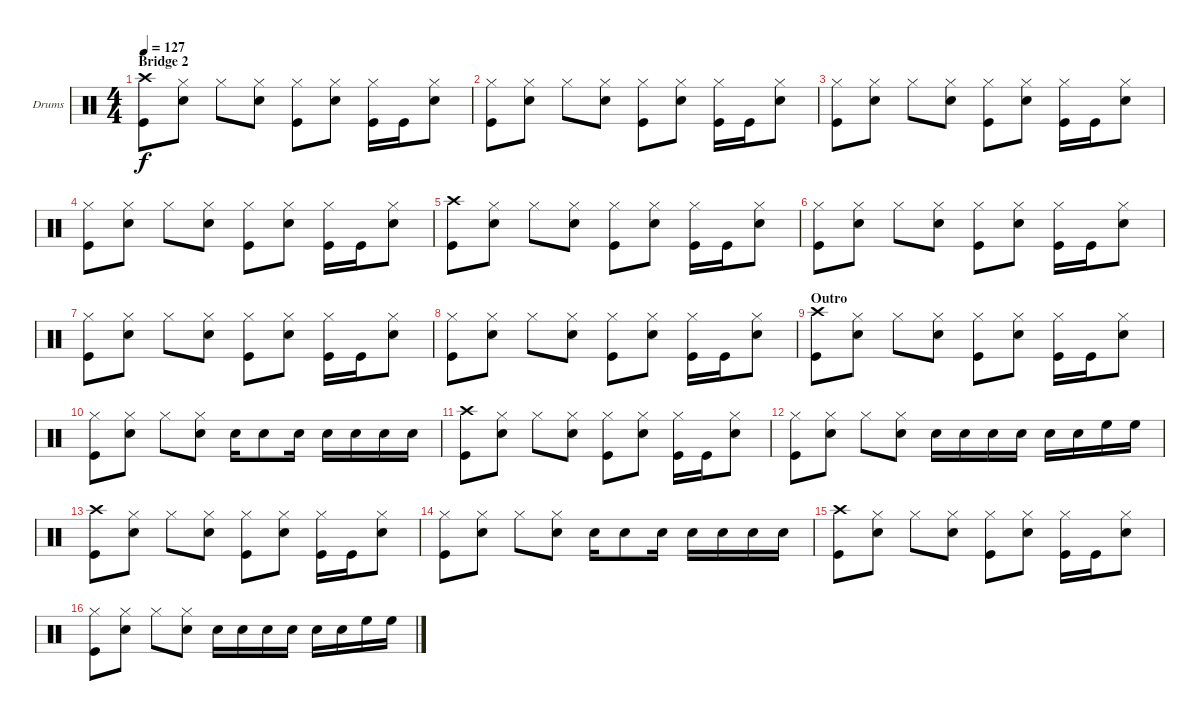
\bracketExtendMode nobrackets
\firstSystemTrackNameOrientation horizontal
\otherSystemsTrackNameOrientation horizontal
\track ("Matt Cameron" "Drums") {instrument percussion}
\staff {score}
\articulation defaults
\ts (4 4)
\section ("" "Bridge 2")
\tempo 127
\clef neutral
\scale
0.37037
\ks c
("Kick (hit)" "Crash high (hit)").8{dy f} ("Snare (hit) 2" "Hi-Hat (closed)").8 "Hi-Hat (closed)".8 ("Snare (hit) 2" "Hi-Hat (closed)").8 ("Kick (hit)" "Hi-Hat (closed)").8 ("Snare (hit) 2" "Hi-Hat (closed)").8 ("Kick (hit)" "Hi-Hat (closed)").16 "Kick (hit)".16 ("Snare (hit) 2" "Hi-Hat (closed)").8 |
\scale
0.259259 ("Kick (hit)" "Hi-Hat (closed)").8 ("Snare (hit) 2" "Hi-Hat (closed)").8 "Hi-Hat (closed)".8 ("Snare (hit) 2" "Hi-Hat (closed)").8 ("Kick (hit)" "Hi-Hat (closed)").8 ("Snare (hit) 2" "Hi-Hat (closed)").8 ("Kick (hit)" "Hi-Hat (closed)").16 "Kick (hit)".16 ("Snare (hit) 2" "Hi-Hat (closed)").8 |
\scale
0.333333 ("Kick (hit)" "Hi-Hat (closed)").8 ("Snare (hit) 2" "Hi-Hat (closed)").8 "Hi-Hat (closed)".8 ("Snare (hit) 2" "Hi-Hat (closed)").8 ("Kick (hit)" "Hi-Hat (closed)").8 ("Snare (hit) 2" "Hi-Hat (closed)").8 ("Kick (hit)" "Hi-Hat (closed)").16 "Kick (hit)".16 ("Snare (hit) 2" "Hi-Hat (closed)").8 |
\scale
0.333333 ("Kick (hit)" "Hi-Hat (closed)").8 ("Snare (hit) 2" "Hi-Hat (closed)").8 "Hi-Hat (closed)".8 ("Snare (hit) 2" "Hi-Hat (closed)").8 ("Kick (hit)" "Hi-Hat (closed)").8 ("Snare (hit) 2" "Hi-Hat (closed)").8 ("Kick (hit)" "Hi-Hat (closed)").16 "Kick (hit)".16 ("Snare (hit) 2" "Hi-Hat (closed)").8 |
\scale
0.333333 ("Kick (hit)" "Crash high (hit)").8 ("Snare (hit) 2" "Hi-Hat (closed)").8 "Hi-Hat (closed)".8 ("Snare (hit) 2" "Hi-Hat (closed)").8 ("Kick (hit)" "Hi-Hat (closed)").8 ("Snare (hit) 2" "Hi-Hat (closed)").8 ("Kick (hit)" "Hi-Hat (closed)").16 "Kick (hit)".16 ("Snare (hit) 2" "Hi-Hat (closed)").8 |
\scale
0.333333 ("Kick (hit)" "Hi-Hat (closed)").8 ("Snare (hit) 2" "Hi-Hat (closed)").8 "Hi-Hat (closed)".8 ("Snare (hit) 2" "Hi-Hat (closed)").8 ("Kick (hit)" "Hi-Hat (closed)").8 ("Snare (hit) 2" "Hi-Hat (closed)").8 ("Kick (hit)" "Hi-Hat (closed)").16 "Kick (hit)".16 ("Snare (hit) 2" "Hi-Hat (closed)").8 |
\scale
0.333333 ("Kick (hit)" "Hi-Hat (closed)").8 ("Snare (hit) 2" "Hi-Hat (closed)").8 "Hi-Hat (closed)".8 ("Snare (hit) 2" "Hi-Hat (closed)").8 ("Kick (hit)" "Hi-Hat (closed)").8 ("Snare (hit) 2" "Hi-Hat (closed)").8 ("Kick (hit)" "Hi-Hat (closed)").16 "Kick (hit)".16 ("Snare (hit) 2" "Hi-Hat (closed)").8 |
\scale
0.333333 ("Kick (hit)" "Hi-Hat (closed)").8 ("Snare (hit) 2" "Hi-Hat (closed)").8 "Hi-Hat (closed)".8 ("Snare (hit) 2" "Hi-Hat (closed)").8 ("Kick (hit)" "Hi-Hat (closed)").8 ("Snare (hit) 2" "Hi-Hat (closed)").8 ("Kick (hit)" "Hi-Hat (closed)").16 "Kick (hit)".16 ("Snare (hit) 2" "Hi-Hat (closed)").8 |
\section ("" "Outro")
\scale
0.333333 ("Kick (hit)" "Crash high (hit)").8 ("Snare (hit) 2" "Hi-Hat (closed)").8 "Hi-Hat (closed)".8 ("Snare (hit) 2" "Hi-Hat (closed)").8 ("Kick (hit)" "Hi-Hat (closed)").8 ("Snare (hit) 2" "Hi-Hat (closed)").8 ("Kick (hit)" "Hi-Hat (closed)").16 "Kick (hit)".16 ("Snare (hit) 2" "Hi-Hat (closed)").8 |
\scale
0.333333 ("Kick (hit)" "Hi-Hat (closed)").8 ("Snare (hit) 2" "Hi-Hat (closed)").8 "Hi-Hat (closed)".8 ("Snare (hit) 2" "Hi-Hat (closed)").8 "Snare (hit) 2".16 "Snare (hit) 2".8 "Snare (hit) 2".16 "Snare (hit) 2".16 "Snare (hit) 2".16 "Snare (hit) 2".16 "Snare (hit) 2".16 |
\scale
0.333333 ("Kick (hit)" "Crash high (hit)").8 ("Snare (hit) 2" "Hi-Hat (closed)").8 "Hi-Hat (closed)".8 ("Snare (hit) 2" "Hi-Hat (closed)").8 ("Kick (hit)" "Hi-Hat (closed)").8 ("Snare (hit) 2" "Hi-Hat (closed)").8 ("Kick (hit)" "Hi-Hat (closed)").16 "Kick (hit)".16 ("Snare (hit) 2" "Hi-Hat (closed)").8 |
\scale
0.333333 ("Kick (hit)" "Hi-Hat (closed)").8 ("Snare (hit) 2" "Hi-Hat (closed)").8 "Hi-Hat (closed)".8 ("Snare (hit) 2" "Hi-Hat (closed)").8 "Snare (hit) 2".16 "Snare (hit) 2".16 "Snare (hit) 2".16 "Snare (hit) 2".16 "Snare (hit) 2".16 "Snare (hit) 2".16 "High Floor Tom (hit)".16 "High Floor Tom (hit)".16 |
\scale
0.333333 ("Kick (hit)" "Crash high (hit)").8 ("Snare (hit) 2" "Hi-Hat (closed)").8 "Hi-Hat (closed)".8 ("Snare (hit) 2" "Hi-Hat (closed)").8 ("Kick (hit)" "Hi-Hat (closed)").8 ("Snare (hit) 2" "Hi-Hat (closed)").8 ("Kick (hit)" "Hi-Hat (closed)").16 "Kick (hit)".16 ("Snare (hit) 2" "Hi-Hat (closed)").8 |
\scale
0.333333 ("Kick (hit)" "Hi-Hat (closed)").8 ("Snare (hit) 2" "Hi-Hat (closed)").8 "Hi-Hat (closed)".8 ("Snare (hit) 2" "Hi-Hat (closed)").8 "Snare (hit) 2".16 "Snare (hit) 2".8 "Snare (hit) 2".16 "Snare (hit) 2".16 "Snare (hit) 2".16 "Snare (hit) 2".16 "Snare (hit) 2".16 |
\scale
0.333333 ("Kick (hit)" "Crash high (hit)").8 ("Snare (hit) 2" "Hi-Hat (closed)").8 "Hi-Hat (closed)".8 ("Snare (hit) 2" "Hi-Hat (closed)").8 ("Kick (hit)" "Hi-Hat (closed)").8 ("Snare (hit) 2" "Hi-Hat (closed)").8 ("Kick (hit)" "Hi-Hat (closed)").16 "Kick (hit)".16 ("Snare (hit) 2" "Hi-Hat (closed)").8 |
\scale
0.333333 ("Kick (hit)" "Hi-Hat (closed)").8 ("Snare (hit) 2" "Hi-Hat (closed)").8 "Hi-Hat (closed)".8 ("Snare (hit) 2" "Hi-Hat (closed)").8 "Snare (hit) 2".16 "Snare (hit) 2".16 "Snare (hit) 2".16 "Snare (hit) 2".16 "Snare (hit) 2".16 "Snare (hit) 2".16 "High Floor Tom (hit)".16 "High Floor Tom (hit)".16
